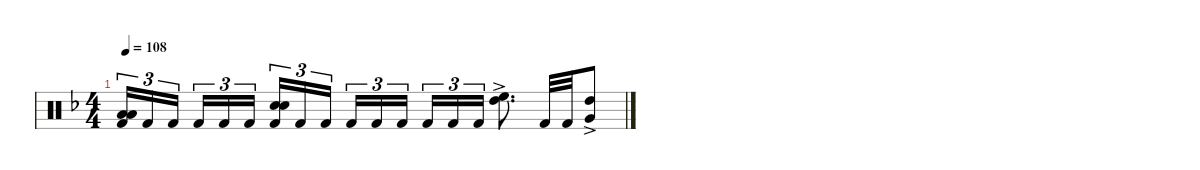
\defaultSystemsLayout 4
\hideDynamics
\bracketExtendMode nobrackets
\singleTrackTrackNamePolicy hidden
\multiTrackTrackNamePolicy hidden
\firstSystemTrackNameMode fullname
\firstSystemTrackNameOrientation horizontal
\otherSystemsTrackNameOrientation horizontal
\track ("Danny Carey" "drm.") {defaultSystemsLayout 4 instrument percussion}
\staff {score}
\articulation defaults
\ts (4 4)
\tempo 108
\clef neutral
\ks dminor
("Low Floor Tom (hit)"{acc forcenatural} "Low Floor Tom (hit)"{acc forcenatural} "Kick (hit) 2"{acc forcenatural}).16{tu (3 2) dy f beam Up} "Kick (hit) 2"{acc forcenatural}.16{tu (3 2) beam Up} "Kick (hit) 2"{acc forcenatural}.16{tu (3 2) beam Up} "Kick (hit) 2"{acc forcenatural}.16{tu (3 2) beam Up} "Kick (hit) 2"{acc forcenatural}.16{tu (3 2) beam Up} "Kick (hit) 2"{acc forcenatural}.16{tu (3 2) beam Up} ("Snare (hit) 2"{acc forcenatural} "Snare (hit) 2"{acc forcenatural} "Kick (hit) 2"{acc forcenatural}).16{tu (3 2) beam Up} "Kick (hit) 2"{acc forcenatural}.16{tu (3 2) beam Up} "Kick (hit) 2"{acc forcenatural}.16{tu (3 2) beam Up} "Kick (hit) 2"{acc forcenatural}.16{tu (3 2) beam Up} "Kick (hit) 2"{acc forcenatural}.16{tu (3 2) beam Up} "Kick (hit) 2"{acc forcenatural}.16{tu (3 2) beam Up} "Kick (hit) 2"{acc forcenatural}.16{tu (3 2) beam Up} "Kick (hit) 2"{acc forcenatural}.16{tu (3 2) beam Up} "Kick (hit) 2"{acc forcenatural}.16{tu (3 2) beam Up} ("High Floor Tom (hit)"{ac acc forcenatural} "High Tom (hit)"{ac acc forcenatural}).8{d beam Down} "Kick (hit) 2"{acc forcenatural}.32{beam Up} "Kick (hit) 2"{acc forcenatural}.32{beam Up} ("High Tom (hit)"{ac acc forcenatural} "Very Low Tom (hit)"{ac acc forcenatural}).8{beam Up}
